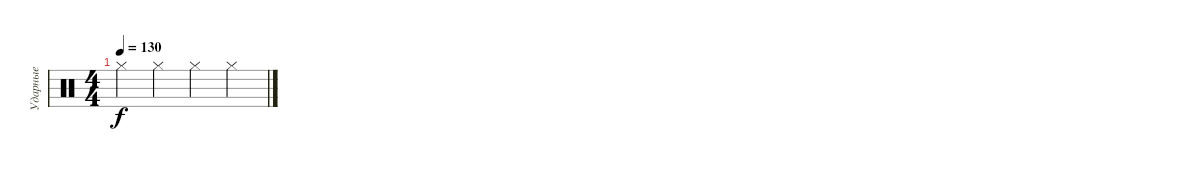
\track ("Ударные" "Ударные") {instrument percussion}
\staff {score}
\articulation defaults
\ts (4 4)
\tempo 130
\clef neutral
\ks c "Hi-Hat (closed)".4{dy f} "Hi-Hat (closed)".4 "Hi-Hat (closed)".4 "Hi-Hat (closed)".4
